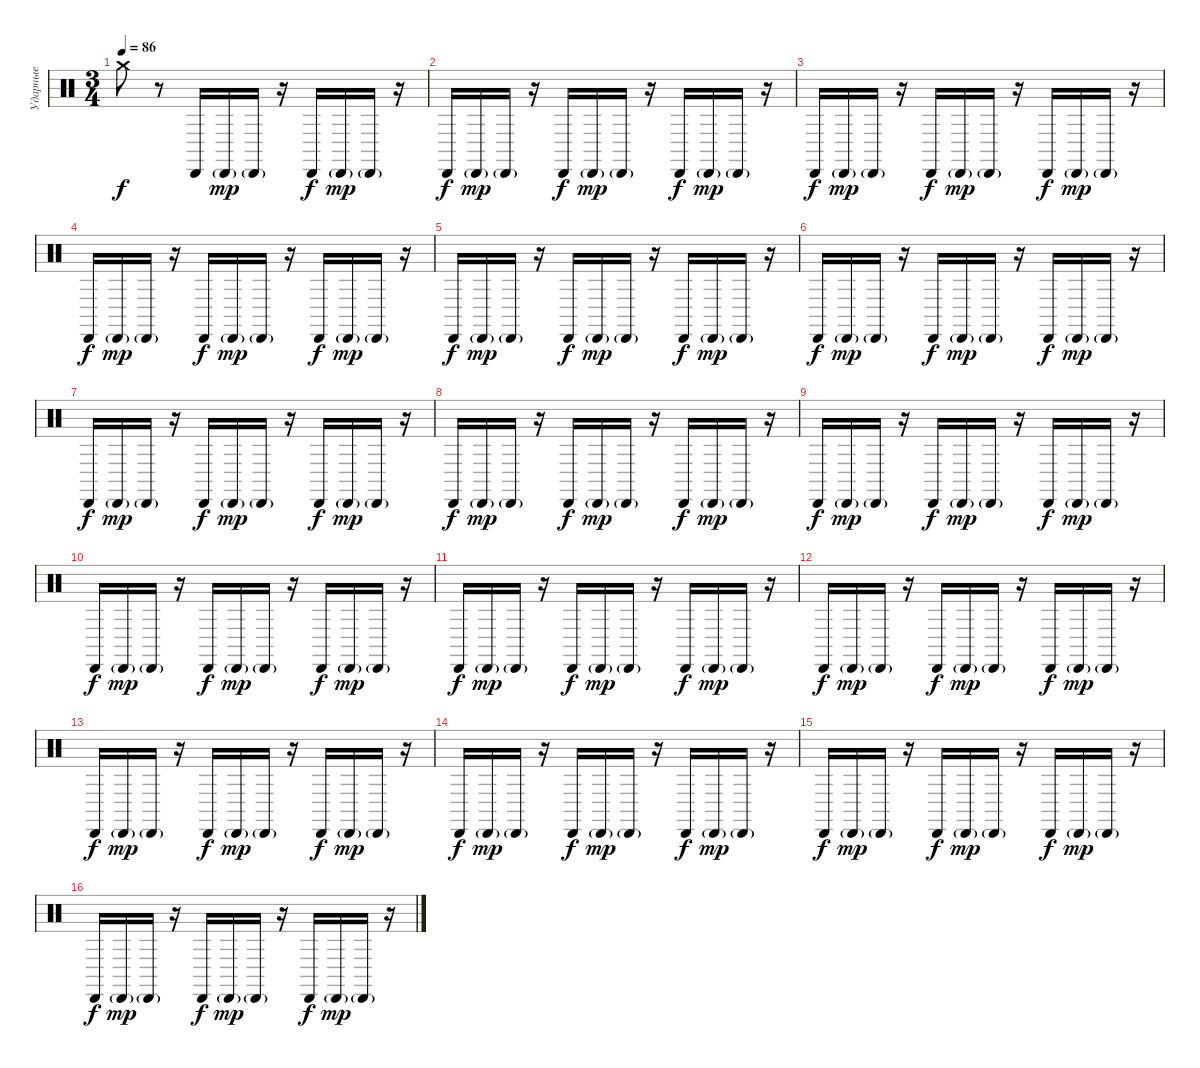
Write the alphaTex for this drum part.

\track ("Ударные" "Ударные") {instrument percussion}
\staff {score}
\articulation defaults
\ts (3 4)
\tempo 86
\clef neutral
\ks c "Crash medium (hit)".8{dy f}
r.8 "Cabasa (hit)".16 "Cabasa (hit)"{g}.16{dy mp} "Cabasa (hit)"{g}.16 r.16 "Cabasa (hit)".16{dy f} "Cabasa (hit)"{g}.16{dy mp} "Cabasa (hit)"{g}.16 r.16 |
"Cabasa (hit)".16{dy f} "Cabasa (hit)"{g}.16{dy mp} "Cabasa (hit)"{g}.16 r.16 "Cabasa (hit)".16{dy f} "Cabasa (hit)"{g}.16{dy mp} "Cabasa (hit)"{g}.16 r.16 "Cabasa (hit)".16{dy f} "Cabasa (hit)"{g}.16{dy mp} "Cabasa (hit)"{g}.16 r.16 |
"Cabasa (hit)".16{dy f} "Cabasa (hit)"{g}.16{dy mp} "Cabasa (hit)"{g}.16 r.16 "Cabasa (hit)".16{dy f} "Cabasa (hit)"{g}.16{dy mp} "Cabasa (hit)"{g}.16 r.16 "Cabasa (hit)".16{dy f} "Cabasa (hit)"{g}.16{dy mp} "Cabasa (hit)"{g}.16 r.16 |
"Cabasa (hit)".16{dy f} "Cabasa (hit)"{g}.16{dy mp} "Cabasa (hit)"{g}.16 r.16 "Cabasa (hit)".16{dy f} "Cabasa (hit)"{g}.16{dy mp} "Cabasa (hit)"{g}.16 r.16 "Cabasa (hit)".16{dy f} "Cabasa (hit)"{g}.16{dy mp} "Cabasa (hit)"{g}.16 r.16 |
"Cabasa (hit)".16{dy f} "Cabasa (hit)"{g}.16{dy mp} "Cabasa (hit)"{g}.16 r.16 "Cabasa (hit)".16{dy f} "Cabasa (hit)"{g}.16{dy mp} "Cabasa (hit)"{g}.16 r.16 "Cabasa (hit)".16{dy f} "Cabasa (hit)"{g}.16{dy mp} "Cabasa (hit)"{g}.16 r.16 |
"Cabasa (hit)".16{dy f} "Cabasa (hit)"{g}.16{dy mp} "Cabasa (hit)"{g}.16 r.16 "Cabasa (hit)".16{dy f} "Cabasa (hit)"{g}.16{dy mp} "Cabasa (hit)"{g}.16 r.16 "Cabasa (hit)".16{dy f} "Cabasa (hit)"{g}.16{dy mp} "Cabasa (hit)"{g}.16 r.16 |
"Cabasa (hit)".16{dy f} "Cabasa (hit)"{g}.16{dy mp} "Cabasa (hit)"{g}.16 r.16 "Cabasa (hit)".16{dy f} "Cabasa (hit)"{g}.16{dy mp} "Cabasa (hit)"{g}.16 r.16 "Cabasa (hit)".16{dy f} "Cabasa (hit)"{g}.16{dy mp} "Cabasa (hit)"{g}.16 r.16 |
"Cabasa (hit)".16{dy f} "Cabasa (hit)"{g}.16{dy mp} "Cabasa (hit)"{g}.16 r.16 "Cabasa (hit)".16{dy f} "Cabasa (hit)"{g}.16{dy mp} "Cabasa (hit)"{g}.16 r.16 "Cabasa (hit)".16{dy f} "Cabasa (hit)"{g}.16{dy mp} "Cabasa (hit)"{g}.16 r.16 |
"Cabasa (hit)".16{dy f} "Cabasa (hit)"{g}.16{dy mp} "Cabasa (hit)"{g}.16 r.16 "Cabasa (hit)".16{dy f} "Cabasa (hit)"{g}.16{dy mp} "Cabasa (hit)"{g}.16 r.16 "Cabasa (hit)".16{dy f} "Cabasa (hit)"{g}.16{dy mp} "Cabasa (hit)"{g}.16 r.16 |
"Cabasa (hit)".16{dy f} "Cabasa (hit)"{g}.16{dy mp} "Cabasa (hit)"{g}.16 r.16 "Cabasa (hit)".16{dy f} "Cabasa (hit)"{g}.16{dy mp} "Cabasa (hit)"{g}.16 r.16 "Cabasa (hit)".16{dy f} "Cabasa (hit)"{g}.16{dy mp} "Cabasa (hit)"{g}.16 r.16 |
"Cabasa (hit)".16{dy f} "Cabasa (hit)"{g}.16{dy mp} "Cabasa (hit)"{g}.16 r.16 "Cabasa (hit)".16{dy f} "Cabasa (hit)"{g}.16{dy mp} "Cabasa (hit)"{g}.16 r.16 "Cabasa (hit)".16{dy f} "Cabasa (hit)"{g}.16{dy mp} "Cabasa (hit)"{g}.16 r.16 |
"Cabasa (hit)".16{dy f} "Cabasa (hit)"{g}.16{dy mp} "Cabasa (hit)"{g}.16 r.16 "Cabasa (hit)".16{dy f} "Cabasa (hit)"{g}.16{dy mp} "Cabasa (hit)"{g}.16 r.16 "Cabasa (hit)".16{dy f} "Cabasa (hit)"{g}.16{dy mp} "Cabasa (hit)"{g}.16 r.16 |
"Cabasa (hit)".16{dy f} "Cabasa (hit)"{g}.16{dy mp} "Cabasa (hit)"{g}.16 r.16 "Cabasa (hit)".16{dy f} "Cabasa (hit)"{g}.16{dy mp} "Cabasa (hit)"{g}.16 r.16 "Cabasa (hit)".16{dy f} "Cabasa (hit)"{g}.16{dy mp} "Cabasa (hit)"{g}.16 r.16 |
"Cabasa (hit)".16{dy f} "Cabasa (hit)"{g}.16{dy mp} "Cabasa (hit)"{g}.16 r.16 "Cabasa (hit)".16{dy f} "Cabasa (hit)"{g}.16{dy mp} "Cabasa (hit)"{g}.16 r.16 "Cabasa (hit)".16{dy f} "Cabasa (hit)"{g}.16{dy mp} "Cabasa (hit)"{g}.16 r.16 |
"Cabasa (hit)".16{dy f} "Cabasa (hit)"{g}.16{dy mp} "Cabasa (hit)"{g}.16 r.16 "Cabasa (hit)".16{dy f} "Cabasa (hit)"{g}.16{dy mp} "Cabasa (hit)"{g}.16 r.16 "Cabasa (hit)".16{dy f} "Cabasa (hit)"{g}.16{dy mp} "Cabasa (hit)"{g}.16 r.16 |
"Cabasa (hit)".16{dy f} "Cabasa (hit)"{g}.16{dy mp} "Cabasa (hit)"{g}.16 r.16 "Cabasa (hit)".16{dy f} "Cabasa (hit)"{g}.16{dy mp} "Cabasa (hit)"{g}.16 r.16 "Cabasa (hit)".16{dy f} "Cabasa (hit)"{g}.16{dy mp} "Cabasa (hit)"{g}.16 r.16
